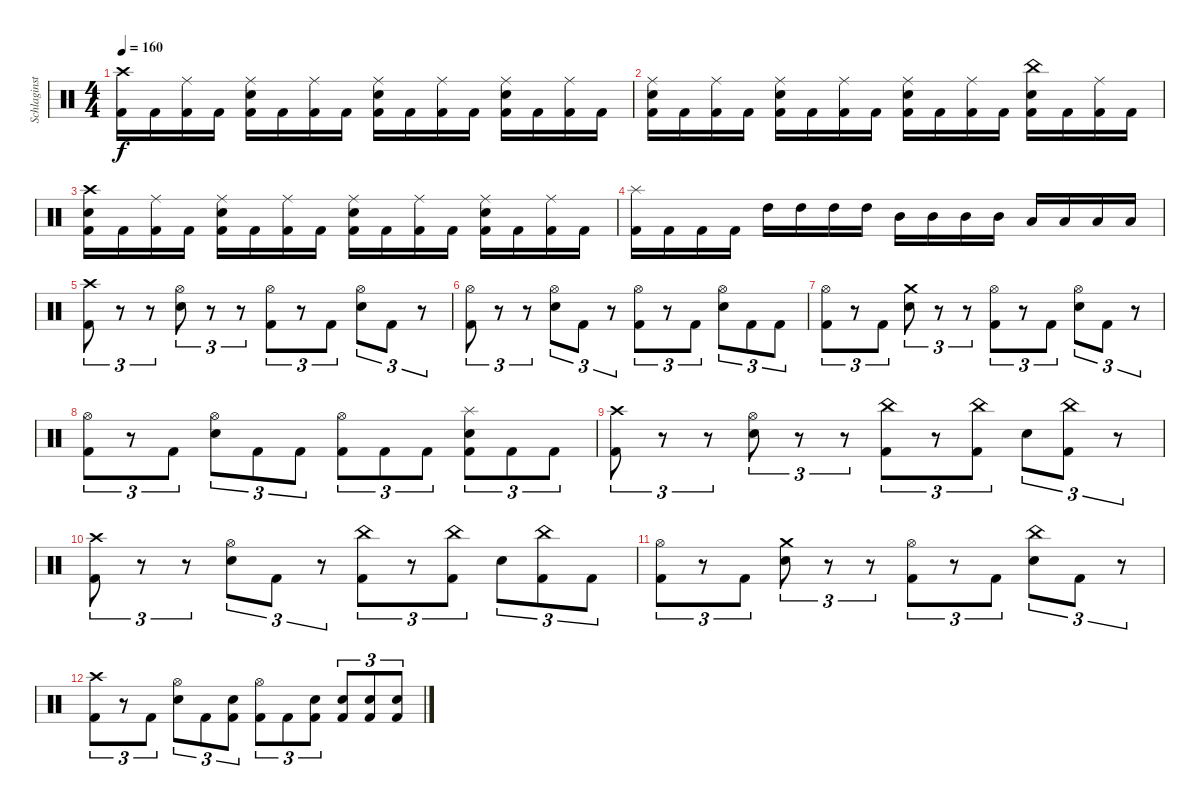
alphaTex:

\track ("Schlaginstrumente - Auswahl" "Schlaginst") {instrument percussion}
\staff {score}
\articulation defaults
\ts (4 4)
\tempo 160
\clef neutral
\ks c
("Crash high (hit)" "Kick (hit) 2").16{dy f} "Kick (hit) 2".16 ("Ride (middle)" "Kick (hit) 2").16 "Kick (hit) 2".16 ("Ride (middle)" "Snare (hit) 2" "Kick (hit) 2").16 "Kick (hit) 2".16 ("Ride (middle)" "Kick (hit) 2").16 "Kick (hit) 2".16 ("Ride (middle)" "Snare (hit) 2" "Kick (hit) 2").16 "Kick (hit) 2".16 ("Ride (middle)" "Kick (hit) 2").16 "Kick (hit) 2".16 ("Ride (middle)" "Snare (hit) 2" "Kick (hit) 2").16 "Kick (hit) 2".16 ("Ride (middle)" "Kick (hit) 2").16 "Kick (hit) 2".16 |
("Ride (middle)" "Snare (hit) 2" "Kick (hit) 2").16 "Kick (hit) 2".16 ("Ride (middle)" "Kick (hit) 2").16 "Kick (hit) 2".16 ("Ride (middle)" "Snare (hit) 2" "Kick (hit) 2").16 "Kick (hit) 2".16 ("Ride (middle)" "Kick (hit) 2").16 "Kick (hit) 2".16 ("Ride (middle)" "Snare (hit) 2" "Kick (hit) 2").16 "Kick (hit) 2".16 ("Ride (middle)" "Kick (hit) 2").16 "Kick (hit) 2".16 ("China (hit)" "Snare (hit) 2" "Kick (hit) 2").16 "Kick (hit) 2".16 ("Ride (middle)" "Kick (hit) 2").16 "Kick (hit) 2".16 |
("Crash high (hit)" "Snare (hit) 2" "Kick (hit) 2").16 "Kick (hit) 2".16 ("Ride (middle)" "Kick (hit) 2").16 "Kick (hit) 2".16 ("Ride (middle)" "Snare (hit) 2" "Kick (hit) 2").16 "Kick (hit) 2".16 ("Ride (middle)" "Kick (hit) 2").16 "Kick (hit) 2".16 ("Ride (middle)" "Snare (hit) 2" "Kick (hit) 2").16 "Kick (hit) 2".16 ("Ride (middle)" "Kick (hit) 2").16 "Kick (hit) 2".16 ("Ride (middle)" "Snare (hit) 2" "Kick (hit) 2").16 "Kick (hit) 2".16 ("Ride (middle)" "Kick (hit) 2").16 "Kick (hit) 2".16 |
("Splash (hit)" "Kick (hit) 2").16 "Kick (hit) 2".16 "Kick (hit) 2".16 "Kick (hit) 2".16 "High Tom (hit)".16 "High Tom (hit)".16 "High Tom (hit)".16 "High Tom (hit)".16 "Mid Tom (hit)".16 "Mid Tom (hit)".16 "Mid Tom (hit)".16 "Mid Tom (hit)".16 "Low Tom (hit)".16 "Low Tom (hit)".16 "Low Tom (hit)".16 "Low Tom (hit)".16 |
("Crash high (hit)" "Kick (hit) 2").8{tu (3 2)} r.8{tu (3 2)} r.8{tu (3 2)} ("Hi-Hat (open)" "Snare (hit) 2").8{tu (3 2)} r.8{tu (3 2)} r.8{tu (3 2)} ("Hi-Hat (open)" "Kick (hit) 2").8{tu (3 2)} r.8{tu (3 2)} "Kick (hit) 2".8{tu (3 2)} ("Hi-Hat (open)" "Snare (hit) 2").8{tu (3 2)} "Kick (hit) 2".8{tu (3 2)} r.8{tu (3 2)} |
("Hi-Hat (open)" "Kick (hit) 2").8{tu (3 2)} r.8{tu (3 2)} r.8{tu (3 2)} ("Hi-Hat (open)" "Snare (hit) 2").8{tu (3 2)} "Kick (hit) 2".8{tu (3 2)} r.8{tu (3 2)} ("Hi-Hat (open)" "Kick (hit) 2").8{tu (3 2)} r.8{tu (3 2)} "Kick (hit) 2".8{tu (3 2)} ("Hi-Hat (open)" "Snare (hit) 2").8{tu (3 2)} "Kick (hit) 2".8{tu (3 2)} "Kick (hit) 2".8{tu (3 2)} |
("Hi-Hat (open)" "Kick (hit) 2").8{tu (3 2)} r.8{tu (3 2)} "Kick (hit) 2".8{tu (3 2)} ("Crash medium (hit)" "Snare (hit) 2").8{tu (3 2)} r.8{tu (3 2)} r.8{tu (3 2)} ("Hi-Hat (open)" "Kick (hit) 2").8{tu (3 2)} r.8{tu (3 2)} "Kick (hit) 2".8{tu (3 2)} ("Hi-Hat (open)" "Snare (hit) 2").8{tu (3 2)} "Kick (hit) 2".8{tu (3 2)} r.8{tu (3 2)} |
("Hi-Hat (open)" "Kick (hit) 2").8{tu (3 2)} r.8{tu (3 2)} "Kick (hit) 2".8{tu (3 2)} ("Hi-Hat (open)" "Snare (hit) 2").8{tu (3 2)} "Kick (hit) 2".8{tu (3 2)} "Kick (hit) 2".8{tu (3 2)} ("Hi-Hat (open)" "Kick (hit) 2").8{tu (3 2)} "Kick (hit) 2".8{tu (3 2)} "Kick (hit) 2".8{tu (3 2)} ("Splash (hit)" "Snare (hit) 2" "Kick (hit) 2").8{tu (3 2)} "Kick (hit) 2".8{tu (3 2)} "Kick (hit) 2".8{tu (3 2)} |
("Crash high (hit)" "Kick (hit) 2").8{tu (3 2)} r.8{tu (3 2)} r.8{tu (3 2)} ("Hi-Hat (open)" "Snare (hit) 2").8{tu (3 2)} r.8{tu (3 2)} r.8{tu (3 2)} ("China (hit)" "Kick (hit) 2").8{tu (3 2)} r.8{tu (3 2)} ("China (hit)" "Kick (hit) 2").8{tu (3 2)} "Snare (hit) 2".8{tu (3 2)} ("China (hit)" "Kick (hit) 2").8{tu (3 2)} r.8{tu (3 2)} |
("Crash high (hit)" "Kick (hit) 2").8{tu (3 2)} r.8{tu (3 2)} r.8{tu (3 2)} ("Hi-Hat (open)" "Snare (hit) 2").8{tu (3 2)} "Kick (hit) 2".8{tu (3 2)} r.8{tu (3 2)} ("China (hit)" "Kick (hit) 2").8{tu (3 2)} r.8{tu (3 2)} ("China (hit)" "Kick (hit) 2").8{tu (3 2)} "Snare (hit) 2".8{tu (3 2)} ("China (hit)" "Kick (hit) 2").8{tu (3 2)} "Kick (hit) 2".8{tu (3 2)} |
("Hi-Hat (open)" "Kick (hit) 2").8{tu (3 2)} r.8{tu (3 2)} "Kick (hit) 2".8{tu (3 2)} ("Crash medium (hit)" "Snare (hit) 2").8{tu (3 2)} r.8{tu (3 2)} r.8{tu (3 2)} ("Hi-Hat (open)" "Kick (hit) 2").8{tu (3 2)} r.8{tu (3 2)} "Kick (hit) 2".8{tu (3 2)} ("China (hit)" "Snare (hit) 2").8{tu (3 2)} "Kick (hit) 2".8{tu (3 2)} r.8{tu (3 2)} |
("Crash high (hit)" "Kick (hit) 2").8{tu (3 2)} r.8{tu (3 2)} "Kick (hit) 2".8{tu (3 2)} ("Hi-Hat (open)" "Snare (hit) 2").8{tu (3 2)} "Kick (hit) 2".8{tu (3 2)} ("Snare (hit) 2" "Kick (hit) 2").8{tu (3 2)} ("Hi-Hat (open)" "Kick (hit) 2").8{tu (3 2)} "Kick (hit) 2".8{tu (3 2)} ("Snare (hit) 2" "Kick (hit) 2").8{tu (3 2)} ("Snare (hit) 2" "Kick (hit) 2").8{tu (3 2)} ("Snare (hit) 2" "Kick (hit) 2").8{tu (3 2)} ("Snare (hit) 2" "Kick (hit) 2").8{tu (3 2)}
